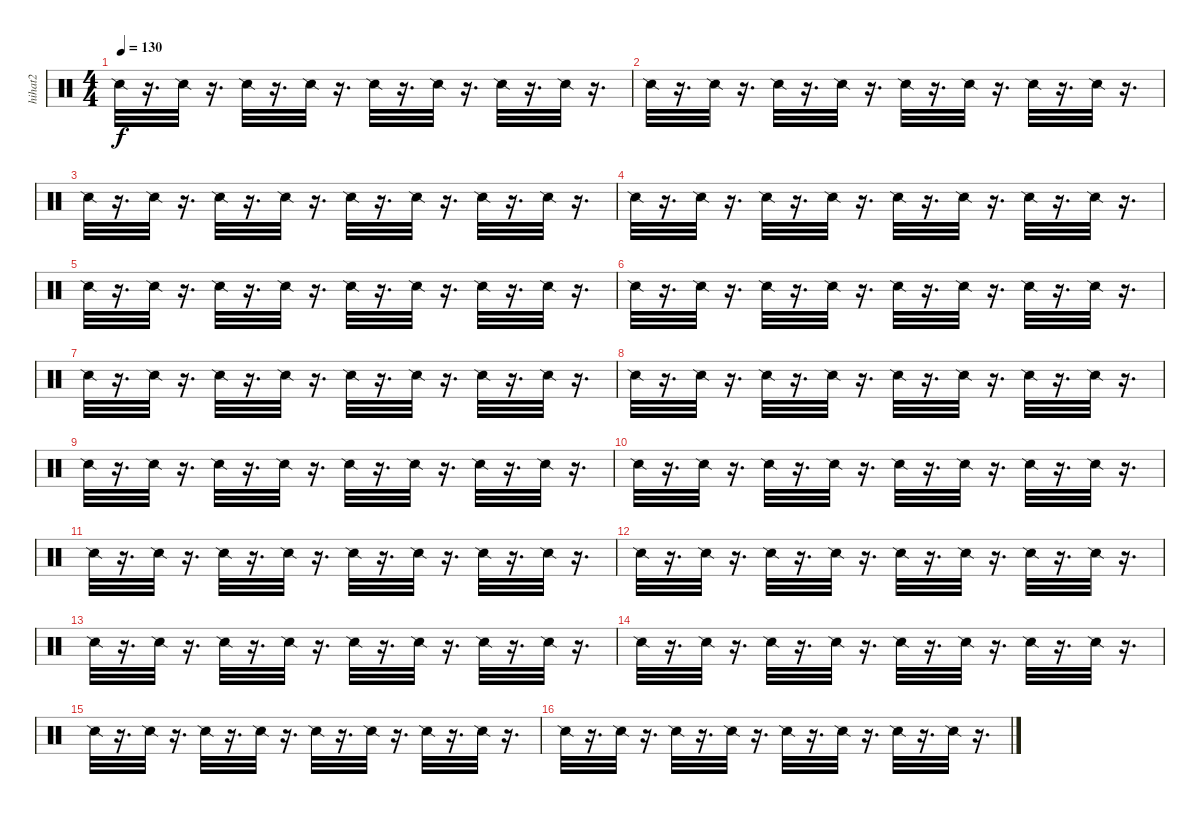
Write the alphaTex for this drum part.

\track ("hihat2              " "hihat2    ") {instrument percussion}
\staff {score}
\articulation defaults
\ts (4 4)
\tempo 130
\clef neutral
\ks c "Snare (side stick) 2".32{dy f}
r.16{d} "Snare (side stick) 2".32 r.16{d} "Snare (side stick) 2".32 r.16{d} "Snare (side stick) 2".32 r.16{d} "Snare (side stick) 2".32 r.16{d} "Snare (side stick) 2".32 r.16{d} "Snare (side stick) 2".32 r.16{d} "Snare (side stick) 2".32 r.16{d} |
"Snare (side stick) 2".32 r.16{d} "Snare (side stick) 2".32 r.16{d} "Snare (side stick) 2".32 r.16{d} "Snare (side stick) 2".32 r.16{d} "Snare (side stick) 2".32 r.16{d} "Snare (side stick) 2".32 r.16{d} "Snare (side stick) 2".32 r.16{d} "Snare (side stick) 2".32 r.16{d} |
"Snare (side stick) 2".32 r.16{d} "Snare (side stick) 2".32 r.16{d} "Snare (side stick) 2".32 r.16{d} "Snare (side stick) 2".32 r.16{d} "Snare (side stick) 2".32 r.16{d} "Snare (side stick) 2".32 r.16{d} "Snare (side stick) 2".32 r.16{d} "Snare (side stick) 2".32 r.16{d} |
"Snare (side stick) 2".32 r.16{d} "Snare (side stick) 2".32 r.16{d} "Snare (side stick) 2".32 r.16{d} "Snare (side stick) 2".32 r.16{d} "Snare (side stick) 2".32 r.16{d} "Snare (side stick) 2".32 r.16{d} "Snare (side stick) 2".32 r.16{d} "Snare (side stick) 2".32 r.16{d} |
"Snare (side stick) 2".32 r.16{d} "Snare (side stick) 2".32 r.16{d} "Snare (side stick) 2".32 r.16{d} "Snare (side stick) 2".32 r.16{d} "Snare (side stick) 2".32 r.16{d} "Snare (side stick) 2".32 r.16{d} "Snare (side stick) 2".32 r.16{d} "Snare (side stick) 2".32 r.16{d} |
"Snare (side stick) 2".32 r.16{d} "Snare (side stick) 2".32 r.16{d} "Snare (side stick) 2".32 r.16{d} "Snare (side stick) 2".32 r.16{d} "Snare (side stick) 2".32 r.16{d} "Snare (side stick) 2".32 r.16{d} "Snare (side stick) 2".32 r.16{d} "Snare (side stick) 2".32 r.16{d} |
"Snare (side stick) 2".32 r.16{d} "Snare (side stick) 2".32 r.16{d} "Snare (side stick) 2".32 r.16{d} "Snare (side stick) 2".32 r.16{d} "Snare (side stick) 2".32 r.16{d} "Snare (side stick) 2".32 r.16{d} "Snare (side stick) 2".32 r.16{d} "Snare (side stick) 2".32 r.16{d} |
"Snare (side stick) 2".32 r.16{d} "Snare (side stick) 2".32 r.16{d} "Snare (side stick) 2".32 r.16{d} "Snare (side stick) 2".32 r.16{d} "Snare (side stick) 2".32 r.16{d} "Snare (side stick) 2".32 r.16{d} "Snare (side stick) 2".32 r.16{d} "Snare (side stick) 2".32 r.16{d} |
"Snare (side stick) 2".32 r.16{d} "Snare (side stick) 2".32 r.16{d} "Snare (side stick) 2".32 r.16{d} "Snare (side stick) 2".32 r.16{d} "Snare (side stick) 2".32 r.16{d} "Snare (side stick) 2".32 r.16{d} "Snare (side stick) 2".32 r.16{d} "Snare (side stick) 2".32 r.16{d} |
"Snare (side stick) 2".32 r.16{d} "Snare (side stick) 2".32 r.16{d} "Snare (side stick) 2".32 r.16{d} "Snare (side stick) 2".32 r.16{d} "Snare (side stick) 2".32 r.16{d} "Snare (side stick) 2".32 r.16{d} "Snare (side stick) 2".32 r.16{d} "Snare (side stick) 2".32 r.16{d} |
"Snare (side stick) 2".32 r.16{d} "Snare (side stick) 2".32 r.16{d} "Snare (side stick) 2".32 r.16{d} "Snare (side stick) 2".32 r.16{d} "Snare (side stick) 2".32 r.16{d} "Snare (side stick) 2".32 r.16{d} "Snare (side stick) 2".32 r.16{d} "Snare (side stick) 2".32 r.16{d} |
"Snare (side stick) 2".32 r.16{d} "Snare (side stick) 2".32 r.16{d} "Snare (side stick) 2".32 r.16{d} "Snare (side stick) 2".32 r.16{d} "Snare (side stick) 2".32 r.16{d} "Snare (side stick) 2".32 r.16{d} "Snare (side stick) 2".32 r.16{d} "Snare (side stick) 2".32 r.16{d} |
"Snare (side stick) 2".32 r.16{d} "Snare (side stick) 2".32 r.16{d} "Snare (side stick) 2".32 r.16{d} "Snare (side stick) 2".32 r.16{d} "Snare (side stick) 2".32 r.16{d} "Snare (side stick) 2".32 r.16{d} "Snare (side stick) 2".32 r.16{d} "Snare (side stick) 2".32 r.16{d} |
"Snare (side stick) 2".32 r.16{d} "Snare (side stick) 2".32 r.16{d} "Snare (side stick) 2".32 r.16{d} "Snare (side stick) 2".32 r.16{d} "Snare (side stick) 2".32 r.16{d} "Snare (side stick) 2".32 r.16{d} "Snare (side stick) 2".32 r.16{d} "Snare (side stick) 2".32 r.16{d} |
"Snare (side stick) 2".32 r.16{d} "Snare (side stick) 2".32 r.16{d} "Snare (side stick) 2".32 r.16{d} "Snare (side stick) 2".32 r.16{d} "Snare (side stick) 2".32 r.16{d} "Snare (side stick) 2".32 r.16{d} "Snare (side stick) 2".32 r.16{d} "Snare (side stick) 2".32 r.16{d} |
"Snare (side stick) 2".32 r.16{d} "Snare (side stick) 2".32 r.16{d} "Snare (side stick) 2".32 r.16{d} "Snare (side stick) 2".32 r.16{d} "Snare (side stick) 2".32 r.16{d} "Snare (side stick) 2".32 r.16{d} "Snare (side stick) 2".32 r.16{d} "Snare (side stick) 2".32 r.16{d}
